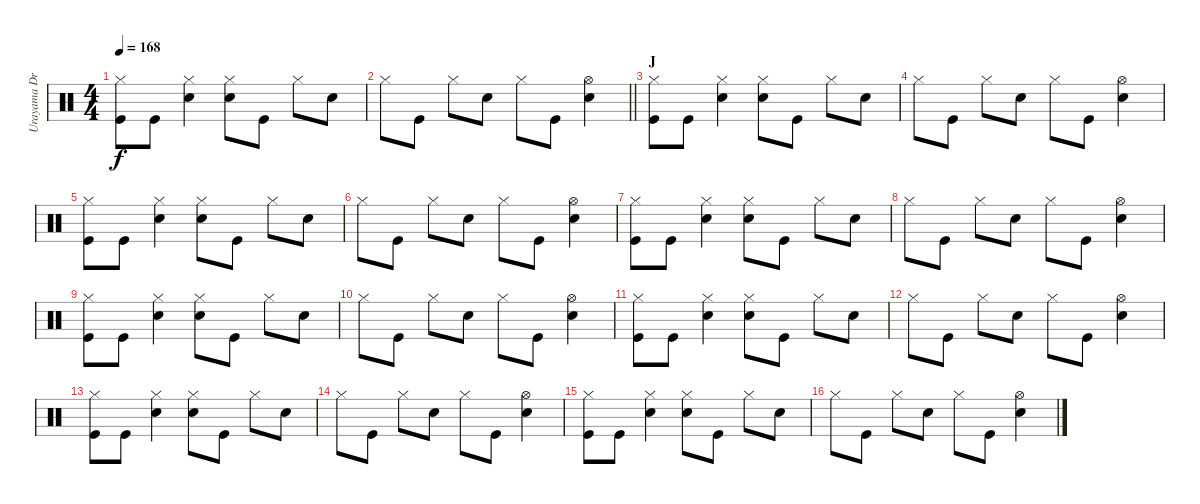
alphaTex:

\track ("Urayama Drums" "Urayama Dr") {instrument percussion}
\staff {score}
\articulation defaults
\ts (4 4)
\tempo 168
\clef neutral
\ks c
("Hi-Hat (closed)" "Kick (hit)").8{dy f} "Kick (hit)".8 ("Hi-Hat (closed)" "Electric Snare (hit)").4 ("Hi-Hat (closed)" "Electric Snare (hit)").8 "Kick (hit)".8 "Hi-Hat (closed)".8 "Electric Snare (hit)".8 |
\barLineRight lightlight "Hi-Hat (closed)".8 "Kick (hit)".8 "Hi-Hat (closed)".8 "Electric Snare (hit)".8 "Hi-Hat (closed)".8 "Kick (hit)".8
("Hi-Hat (open)" "Electric Snare (hit)").4 |
\section ("" "J")
("Hi-Hat (closed)" "Kick (hit)").8 "Kick (hit)".8 ("Hi-Hat (closed)" "Electric Snare (hit)").4 ("Hi-Hat (closed)" "Electric Snare (hit)").8 "Kick (hit)".8 "Hi-Hat (closed)".8 "Electric Snare (hit)".8 |
"Hi-Hat (closed)".8 "Kick (hit)".8 "Hi-Hat (closed)".8 "Electric Snare (hit)".8 "Hi-Hat (closed)".8 "Kick (hit)".8 ("Hi-Hat (open)" "Electric Snare (hit)").4 |
("Hi-Hat (closed)" "Kick (hit)").8 "Kick (hit)".8 ("Hi-Hat (closed)" "Electric Snare (hit)").4 ("Hi-Hat (closed)" "Electric Snare (hit)").8 "Kick (hit)".8 "Hi-Hat (closed)".8 "Electric Snare (hit)".8 |
"Hi-Hat (closed)".8 "Kick (hit)".8 "Hi-Hat (closed)".8 "Electric Snare (hit)".8 "Hi-Hat (closed)".8 "Kick (hit)".8 ("Hi-Hat (open)" "Electric Snare (hit)").4 |
("Hi-Hat (closed)" "Kick (hit)").8 "Kick (hit)".8 ("Hi-Hat (closed)" "Electric Snare (hit)").4 ("Hi-Hat (closed)" "Electric Snare (hit)").8 "Kick (hit)".8 "Hi-Hat (closed)".8 "Electric Snare (hit)".8 |
"Hi-Hat (closed)".8 "Kick (hit)".8 "Hi-Hat (closed)".8 "Electric Snare (hit)".8 "Hi-Hat (closed)".8 "Kick (hit)".8 ("Hi-Hat (open)" "Electric Snare (hit)").4 |
("Hi-Hat (closed)" "Kick (hit)").8 "Kick (hit)".8 ("Hi-Hat (closed)" "Electric Snare (hit)").4 ("Hi-Hat (closed)" "Electric Snare (hit)").8 "Kick (hit)".8 "Hi-Hat (closed)".8 "Electric Snare (hit)".8 |
"Hi-Hat (closed)".8 "Kick (hit)".8 "Hi-Hat (closed)".8 "Electric Snare (hit)".8 "Hi-Hat (closed)".8 "Kick (hit)".8 ("Hi-Hat (open)" "Electric Snare (hit)").4 |
("Hi-Hat (closed)" "Kick (hit)").8 "Kick (hit)".8 ("Hi-Hat (closed)" "Electric Snare (hit)").4 ("Hi-Hat (closed)" "Electric Snare (hit)").8 "Kick (hit)".8 "Hi-Hat (closed)".8 "Electric Snare (hit)".8 |
"Hi-Hat (closed)".8 "Kick (hit)".8 "Hi-Hat (closed)".8 "Electric Snare (hit)".8 "Hi-Hat (closed)".8 "Kick (hit)".8 ("Hi-Hat (open)" "Electric Snare (hit)").4 |
("Hi-Hat (closed)" "Kick (hit)").8 "Kick (hit)".8 ("Hi-Hat (closed)" "Electric Snare (hit)").4 ("Hi-Hat (closed)" "Electric Snare (hit)").8 "Kick (hit)".8 "Hi-Hat (closed)".8 "Electric Snare (hit)".8 |
"Hi-Hat (closed)".8 "Kick (hit)".8 "Hi-Hat (closed)".8 "Electric Snare (hit)".8 "Hi-Hat (closed)".8 "Kick (hit)".8 ("Hi-Hat (open)" "Electric Snare (hit)").4 |
("Hi-Hat (closed)" "Kick (hit)").8 "Kick (hit)".8 ("Hi-Hat (closed)" "Electric Snare (hit)").4 ("Hi-Hat (closed)" "Electric Snare (hit)").8 "Kick (hit)".8 "Hi-Hat (closed)".8 "Electric Snare (hit)".8 |
"Hi-Hat (closed)".8 "Kick (hit)".8 "Hi-Hat (closed)".8 "Electric Snare (hit)".8 "Hi-Hat (closed)".8 "Kick (hit)".8 ("Hi-Hat (open)" "Electric Snare (hit)").4
